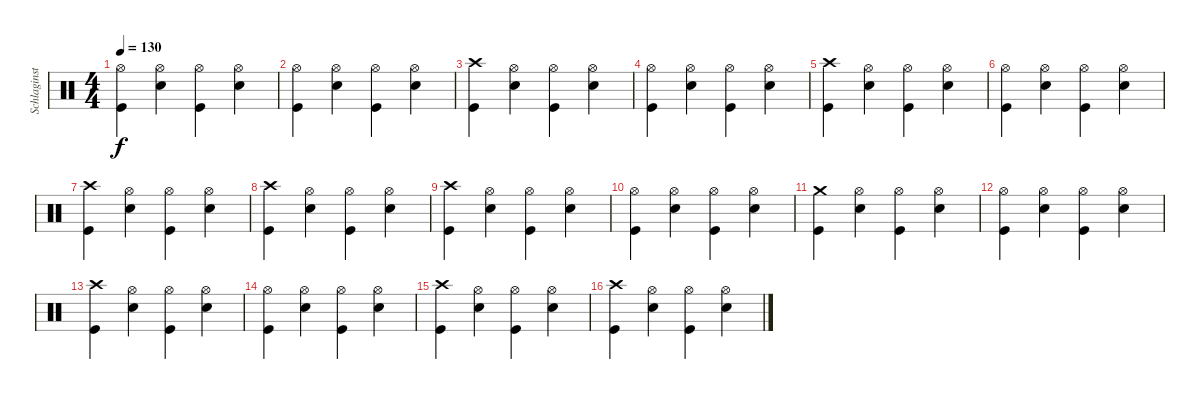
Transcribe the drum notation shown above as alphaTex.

\track ("Schlaginstrumente - Auswahl" "Schlaginst") {instrument percussion}
\staff {score}
\articulation defaults
\ts (4 4)
\tempo 130
\clef neutral
\ks c
("Hi-Hat (open)" "Kick (hit)").4{dy f} ("Hi-Hat (open)" "Snare (hit) 2").4 ("Hi-Hat (open)" "Kick (hit)").4 ("Hi-Hat (open)" "Snare (hit) 2").4 |
("Hi-Hat (open)" "Kick (hit)").4 ("Hi-Hat (open)" "Snare (hit) 2").4 ("Hi-Hat (open)" "Kick (hit)").4 ("Hi-Hat (open)" "Snare (hit) 2").4 |
("Crash high (hit)" "Kick (hit)").4 ("Hi-Hat (open)" "Snare (hit) 2").4 ("Hi-Hat (open)" "Kick (hit)").4 ("Hi-Hat (open)" "Snare (hit) 2").4 |
("Hi-Hat (open)" "Kick (hit)").4 ("Hi-Hat (open)" "Snare (hit) 2").4 ("Hi-Hat (open)" "Kick (hit)").4 ("Hi-Hat (open)" "Snare (hit) 2").4 |
("Crash high (hit)" "Kick (hit)").4 ("Hi-Hat (open)" "Snare (hit) 2").4 ("Hi-Hat (open)" "Kick (hit)").4 ("Hi-Hat (open)" "Snare (hit) 2").4 |
("Hi-Hat (open)" "Kick (hit)").4 ("Hi-Hat (open)" "Snare (hit) 2").4 ("Hi-Hat (open)" "Kick (hit)").4 ("Hi-Hat (open)" "Snare (hit) 2").4 |
("Crash high (hit)" "Kick (hit)").4 ("Hi-Hat (open)" "Snare (hit) 2").4 ("Hi-Hat (open)" "Kick (hit)").4 ("Hi-Hat (open)" "Snare (hit) 2").4 |
("Crash high (hit)" "Kick (hit)").4 ("Hi-Hat (open)" "Snare (hit) 2").4 ("Hi-Hat (open)" "Kick (hit)").4 ("Hi-Hat (open)" "Snare (hit) 2").4 |
("Crash high (hit)" "Kick (hit)").4 ("Hi-Hat (open)" "Snare (hit) 2").4 ("Hi-Hat (open)" "Kick (hit)").4 ("Hi-Hat (open)" "Snare (hit) 2").4 |
("Hi-Hat (open)" "Kick (hit)").4 ("Hi-Hat (open)" "Snare (hit) 2").4 ("Hi-Hat (open)" "Kick (hit)").4 ("Hi-Hat (open)" "Snare (hit) 2").4 |
("Crash medium (hit)" "Kick (hit)").4 ("Hi-Hat (open)" "Snare (hit) 2").4 ("Hi-Hat (open)" "Kick (hit)").4 ("Hi-Hat (open)" "Snare (hit) 2").4 |
("Hi-Hat (open)" "Kick (hit)").4 ("Hi-Hat (open)" "Snare (hit) 2").4 ("Hi-Hat (open)" "Kick (hit)").4 ("Hi-Hat (open)" "Snare (hit) 2").4 |
("Crash high (hit)" "Kick (hit)").4 ("Hi-Hat (open)" "Snare (hit) 2").4 ("Hi-Hat (open)" "Kick (hit)").4 ("Hi-Hat (open)" "Snare (hit) 2").4 |
("Hi-Hat (open)" "Kick (hit)").4 ("Hi-Hat (open)" "Snare (hit) 2").4 ("Hi-Hat (open)" "Kick (hit)").4 ("Hi-Hat (open)" "Snare (hit) 2").4 |
("Crash high (hit)" "Kick (hit)").4 ("Hi-Hat (open)" "Snare (hit) 2").4 ("Hi-Hat (open)" "Kick (hit)").4 ("Hi-Hat (open)" "Snare (hit) 2").4 |
("Crash high (hit)" "Kick (hit)").4 ("Hi-Hat (open)" "Snare (hit) 2").4 ("Hi-Hat (open)" "Kick (hit)").4 ("Snare (hit) 2" "Hi-Hat (open)").4
